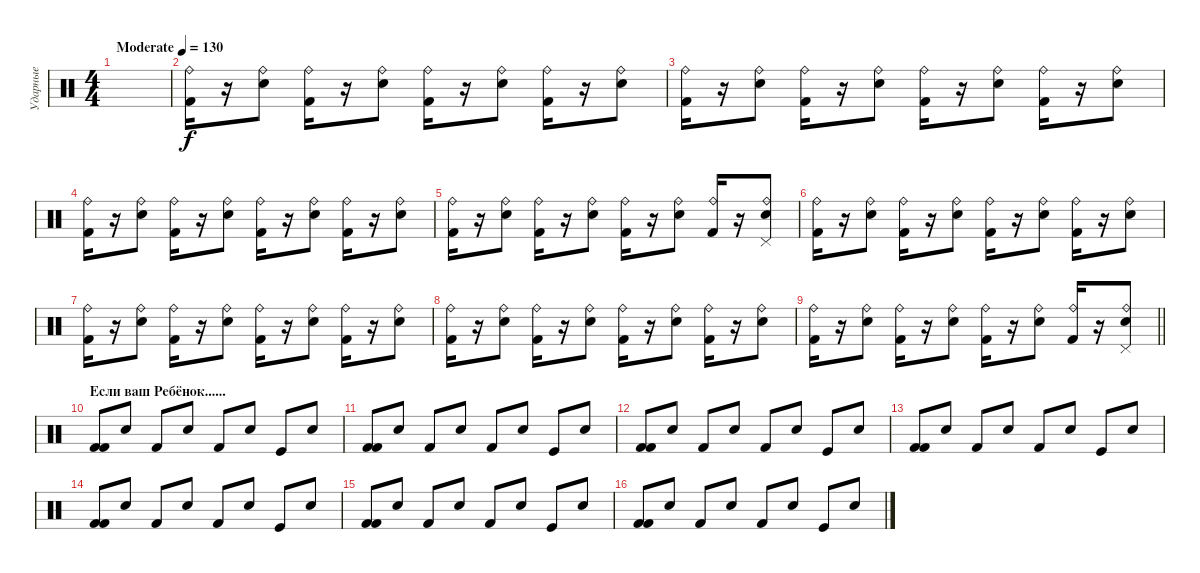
\track ("Ударные" "Ударные") {instrument percussion}
\staff {score}
\articulation defaults
\ts (4 4)
\tempo (130 "Moderate")
\clef neutral
\ks c
|
("Ride (bell)" "Kick (hit) 2").16 r.16 ("Ride (bell)" "Snare (hit) 2").8 ("Ride (bell)" "Kick (hit) 2").16 r.16 ("Ride (bell)" "Snare (hit) 2").8 ("Ride (bell)" "Kick (hit) 2").16 r.16 ("Ride (bell)" "Snare (hit) 2").8 ("Ride (bell)" "Kick (hit) 2").16 r.16 ("Ride (bell)" "Snare (hit) 2").8 |
("Ride (bell)" "Kick (hit) 2").16 r.16 ("Ride (bell)" "Snare (hit) 2").8 ("Ride (bell)" "Kick (hit) 2").16 r.16 ("Ride (bell)" "Snare (hit) 2").8 ("Ride (bell)" "Kick (hit) 2").16 r.16 ("Ride (bell)" "Snare (hit) 2").8 ("Ride (bell)" "Kick (hit) 2").16 r.16 ("Ride (bell)" "Snare (hit) 2").8 |
("Ride (bell)" "Kick (hit) 2").16 r.16 ("Ride (bell)" "Snare (hit) 2").8 ("Ride (bell)" "Kick (hit) 2").16 r.16 ("Ride (bell)" "Snare (hit) 2").8 ("Ride (bell)" "Kick (hit) 2").16 r.16 ("Ride (bell)" "Snare (hit) 2").8 ("Ride (bell)" "Kick (hit) 2").16 r.16 ("Ride (bell)" "Snare (hit) 2").8 |
("Ride (bell)" "Kick (hit) 2").16 r.16 ("Ride (bell)" "Snare (hit) 2").8 ("Ride (bell)" "Kick (hit) 2").16 r.16 ("Ride (bell)" "Snare (hit) 2").8 ("Ride (bell)" "Kick (hit) 2").16 r.16 ("Ride (bell)" "Snare (hit) 2").8 ("Ride (bell)" "Kick (hit) 2").16 r.16 ("Ride (bell)" "Snare (hit) 2" "Pedal Hi-Hat (hit)").8 |
("Ride (bell)" "Kick (hit) 2").16 r.16 ("Ride (bell)" "Snare (hit) 2").8 ("Ride (bell)" "Kick (hit) 2").16 r.16 ("Ride (bell)" "Snare (hit) 2").8 ("Ride (bell)" "Kick (hit) 2").16 r.16 ("Ride (bell)" "Snare (hit) 2").8 ("Ride (bell)" "Kick (hit) 2").16 r.16 ("Ride (bell)" "Snare (hit) 2").8 |
("Ride (bell)" "Kick (hit) 2").16 r.16 ("Ride (bell)" "Snare (hit) 2").8 ("Ride (bell)" "Kick (hit) 2").16 r.16 ("Ride (bell)" "Snare (hit) 2").8 ("Ride (bell)" "Kick (hit) 2").16 r.16 ("Ride (bell)" "Snare (hit) 2").8 ("Ride (bell)" "Kick (hit) 2").16 r.16 ("Ride (bell)" "Snare (hit) 2").8 |
("Ride (bell)" "Kick (hit) 2").16 r.16 ("Ride (bell)" "Snare (hit) 2").8 ("Ride (bell)" "Kick (hit) 2").16 r.16 ("Ride (bell)" "Snare (hit) 2").8 ("Ride (bell)" "Kick (hit) 2").16 r.16 ("Ride (bell)" "Snare (hit) 2").8 ("Ride (bell)" "Kick (hit) 2").16 r.16 ("Ride (bell)" "Snare (hit) 2").8 |
\barLineRight lightlight
("Ride (bell)" "Kick (hit) 2").16 r.16 ("Ride (bell)" "Snare (hit) 2").8 ("Ride (bell)" "Kick (hit) 2").16 r.16 ("Ride (bell)" "Snare (hit) 2").8 ("Ride (bell)" "Kick (hit) 2").16 r.16 ("Ride (bell)" "Snare (hit) 2").8 ("Ride (bell)" "Kick (hit) 2").16 r.16 ("Ride (bell)" "Snare (hit) 2" "Pedal Hi-Hat (hit)").8 |
\section ("" "Если ваш Ребёнок......")
("Kick (hit) 2" "Kick (hit) 2").8 "Snare (hit) 2".8 "Kick (hit) 2".8 "Snare (hit) 2".8 "Kick (hit) 2".8 "Snare (hit) 2".8 "Kick (hit)".8 "Snare (hit) 2".8 |
("Kick (hit) 2" "Kick (hit) 2").8 "Snare (hit) 2".8 "Kick (hit) 2".8 "Snare (hit) 2".8 "Kick (hit) 2".8 "Snare (hit) 2".8 "Kick (hit)".8 "Snare (hit) 2".8 |
("Kick (hit) 2" "Kick (hit) 2").8 "Snare (hit) 2".8 "Kick (hit) 2".8 "Snare (hit) 2".8 "Kick (hit) 2".8 "Snare (hit) 2".8 "Kick (hit)".8 "Snare (hit) 2".8 |
("Kick (hit) 2" "Kick (hit) 2").8 "Snare (hit) 2".8 "Kick (hit) 2".8 "Snare (hit) 2".8 "Kick (hit) 2".8 "Snare (hit) 2".8 "Kick (hit)".8 "Snare (hit) 2".8 |
("Kick (hit) 2" "Kick (hit) 2").8 "Snare (hit) 2".8 "Kick (hit) 2".8 "Snare (hit) 2".8 "Kick (hit) 2".8 "Snare (hit) 2".8 "Kick (hit)".8 "Snare (hit) 2".8 |
("Kick (hit) 2" "Kick (hit) 2").8 "Snare (hit) 2".8 "Kick (hit) 2".8 "Snare (hit) 2".8 "Kick (hit) 2".8 "Snare (hit) 2".8 "Kick (hit)".8 "Snare (hit) 2".8 |
("Kick (hit) 2" "Kick (hit) 2").8 "Snare (hit) 2".8 "Kick (hit) 2".8 "Snare (hit) 2".8 "Kick (hit) 2".8 "Snare (hit) 2".8 "Kick (hit)".8 "Snare (hit) 2".8
